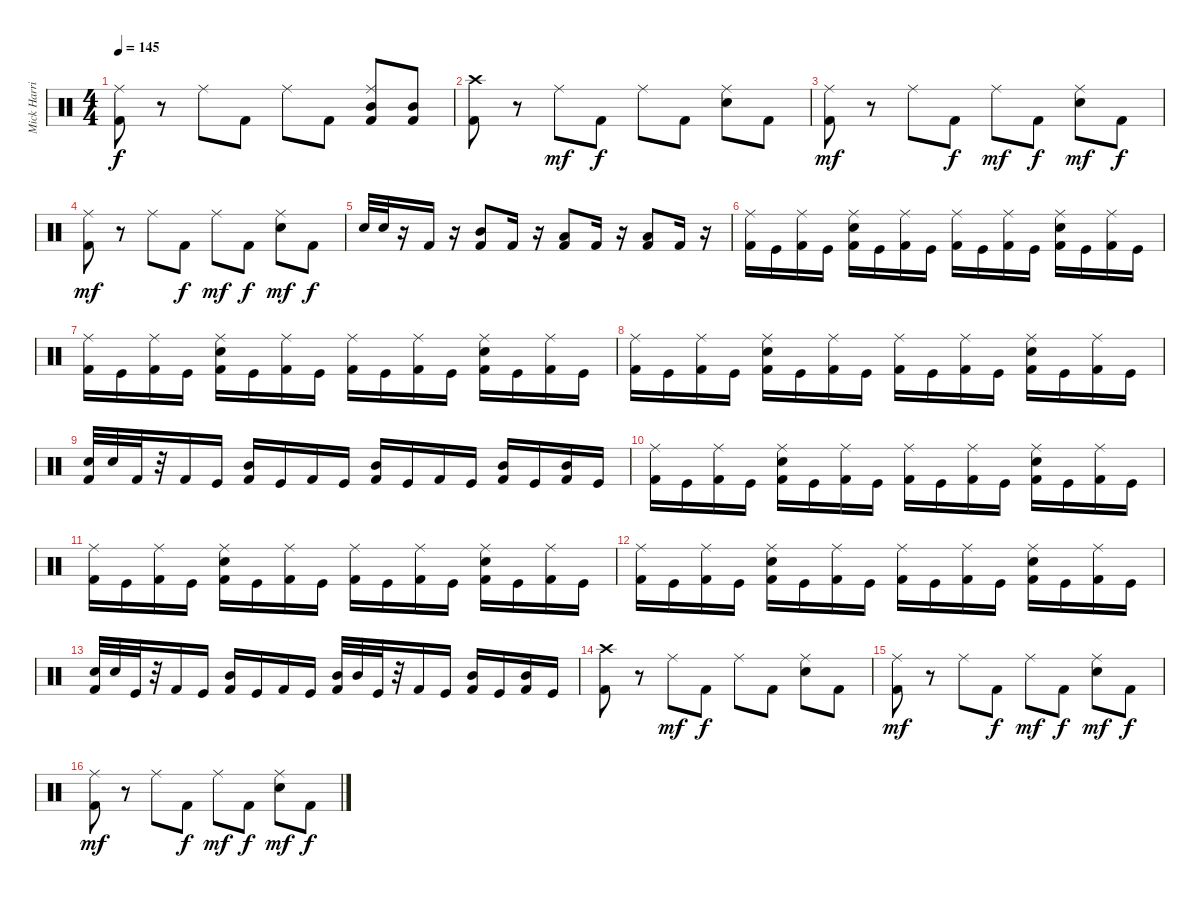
\track ("Mick Harris (Drums)" "Mick Harri") {instrument percussion}
\staff {score}
\articulation defaults
\ts (4 4)
\tempo 145
\clef neutral
\ks c
("Kick (hit) 2" "Ride (middle)").8{dy f} r.8 "Ride (middle)".8 "Kick (hit) 2".8 "Ride (middle)".8 "Kick (hit) 2".8 ("Kick (hit) 2" "Mid Tom (hit)" "Ride (middle)").8 ("Kick (hit) 2" "Mid Tom (hit)").8 |
("Kick (hit) 2" "Crash high (hit)").8 r.8 "Ride (middle)".8{dy mf} "Kick (hit) 2".8{dy f} "Ride (middle)".8 "Kick (hit) 2".8 ("Electric Snare (hit)" "Ride (middle)").8 "Kick (hit) 2".8 |
("Kick (hit) 2" "Ride (middle)").8{dy mf} r.8 "Ride (middle)".8 "Kick (hit) 2".8{dy f} "Ride (middle)".8{dy mf} "Kick (hit) 2".8{dy f} ("Electric Snare (hit)" "Ride (middle)").8{dy mf} "Kick (hit) 2".8{dy f} |
("Kick (hit) 2" "Ride (middle)").8{dy mf} r.8 "Ride (middle)".8 "Kick (hit) 2".8{dy f} "Ride (middle)".8{dy mf} "Kick (hit) 2".8{dy f} ("Electric Snare (hit)" "Ride (middle)").8{dy mf} "Kick (hit) 2".8{dy f} |
"Electric Snare (hit)".32 "Electric Snare (hit)".32 r.16 "Kick (hit) 2".16 r.16 ("Mid Tom (hit)" "Kick (hit) 2").8 "Kick (hit) 2".16 r.16 ("Low Tom (hit)" "Kick (hit) 2").8 "Kick (hit) 2".16 r.16 ("Low Floor Tom (hit)" "Kick (hit) 2").8 "Kick (hit) 2".16 r.16 |
("Kick (hit) 2" "Ride (middle)").16 "Kick (hit)".16 ("Kick (hit) 2" "Ride (middle)").16 "Kick (hit)".16 ("Kick (hit) 2" "Electric Snare (hit)" "Ride (middle)").16 "Kick (hit)".16 ("Kick (hit) 2" "Ride (middle)").16 "Kick (hit)".16 ("Kick (hit) 2" "Ride (middle)").16 "Kick (hit)".16 ("Kick (hit) 2" "Ride (middle)").16 "Kick (hit)".16 ("Kick (hit) 2" "Electric Snare (hit)" "Ride (middle)").16 "Kick (hit)".16 ("Kick (hit) 2" "Ride (middle)").16 "Kick (hit)".16 |
("Kick (hit) 2" "Ride (middle)").16 "Kick (hit)".16 ("Kick (hit) 2" "Ride (middle)").16 "Kick (hit)".16 ("Kick (hit) 2" "Electric Snare (hit)" "Ride (middle)").16 "Kick (hit)".16 ("Kick (hit) 2" "Ride (middle)").16 "Kick (hit)".16 ("Kick (hit) 2" "Ride (middle)").16 "Kick (hit)".16 ("Kick (hit) 2" "Ride (middle)").16 "Kick (hit)".16 ("Kick (hit) 2" "Electric Snare (hit)" "Ride (middle)").16 "Kick (hit)".16 ("Kick (hit) 2" "Ride (middle)").16 "Kick (hit)".16 |
("Kick (hit) 2" "Ride (middle)").16 "Kick (hit)".16 ("Kick (hit) 2" "Ride (middle)").16 "Kick (hit)".16 ("Kick (hit) 2" "Electric Snare (hit)" "Ride (middle)").16 "Kick (hit)".16 ("Kick (hit) 2" "Ride (middle)").16 "Kick (hit)".16 ("Kick (hit) 2" "Ride (middle)").16 "Kick (hit)".16 ("Kick (hit) 2" "Ride (middle)").16 "Kick (hit)".16 ("Kick (hit) 2" "Electric Snare (hit)" "Ride (middle)").16 "Kick (hit)".16 ("Kick (hit) 2" "Ride (middle)").16 "Kick (hit)".16 |
("Kick (hit) 2" "Electric Snare (hit)").32 "Electric Snare (hit)".32 "Kick (hit) 2".32 r.32 "Kick (hit) 2".16 "Kick (hit)".16 ("Kick (hit) 2" "Mid Tom (hit)").16 "Kick (hit)".16 "Kick (hit) 2".16 "Kick (hit)".16 ("Kick (hit) 2" "Mid Tom (hit)").16 "Kick (hit)".16 "Kick (hit) 2".16 "Kick (hit)".16 ("Kick (hit) 2" "Mid Tom (hit)").16 "Kick (hit)".16 ("Kick (hit) 2" "Mid Tom (hit)").16 "Kick (hit)".16 |
("Kick (hit) 2" "Ride (middle)").16 "Kick (hit)".16 ("Kick (hit) 2" "Ride (middle)").16 "Kick (hit)".16 ("Kick (hit) 2" "Electric Snare (hit)" "Ride (middle)").16 "Kick (hit)".16 ("Kick (hit) 2" "Ride (middle)").16 "Kick (hit)".16 ("Kick (hit) 2" "Ride (middle)").16 "Kick (hit)".16 ("Kick (hit) 2" "Ride (middle)").16 "Kick (hit)".16 ("Kick (hit) 2" "Electric Snare (hit)" "Ride (middle)").16 "Kick (hit)".16 ("Kick (hit) 2" "Ride (middle)").16 "Kick (hit)".16 |
("Kick (hit) 2" "Ride (middle)").16 "Kick (hit)".16 ("Kick (hit) 2" "Ride (middle)").16 "Kick (hit)".16 ("Kick (hit) 2" "Electric Snare (hit)" "Ride (middle)").16 "Kick (hit)".16 ("Kick (hit) 2" "Ride (middle)").16 "Kick (hit)".16 ("Kick (hit) 2" "Ride (middle)").16 "Kick (hit)".16 ("Kick (hit) 2" "Ride (middle)").16 "Kick (hit)".16 ("Kick (hit) 2" "Electric Snare (hit)" "Ride (middle)").16 "Kick (hit)".16 ("Kick (hit) 2" "Ride (middle)").16 "Kick (hit)".16 |
("Kick (hit) 2" "Ride (middle)").16 "Kick (hit)".16 ("Kick (hit) 2" "Ride (middle)").16 "Kick (hit)".16 ("Kick (hit) 2" "Electric Snare (hit)" "Ride (middle)").16 "Kick (hit)".16 ("Kick (hit) 2" "Ride (middle)").16 "Kick (hit)".16 ("Kick (hit) 2" "Ride (middle)").16 "Kick (hit)".16 ("Kick (hit) 2" "Ride (middle)").16 "Kick (hit)".16 ("Kick (hit) 2" "Electric Snare (hit)" "Ride (middle)").16 "Kick (hit)".16 ("Kick (hit) 2" "Ride (middle)").16 "Kick (hit)".16 |
("Kick (hit) 2" "Electric Snare (hit)").32 "Electric Snare (hit)".32 "Kick (hit)".32 r.32 "Kick (hit) 2".16 "Kick (hit)".16 ("Kick (hit) 2" "Mid Tom (hit)").16 "Kick (hit)".16 "Kick (hit) 2".16 "Kick (hit)".16 ("Kick (hit) 2" "Mid Tom (hit)").32 "Mid Tom (hit)".32 "Kick (hit)".32 r.32 "Kick (hit) 2".16 "Kick (hit)".16 ("Kick (hit) 2" "Mid Tom (hit)").16 "Kick (hit)".16 ("Kick (hit) 2" "Mid Tom (hit)").16 "Kick (hit)".16 |
("Kick (hit) 2" "Crash high (hit)").8 r.8 "Ride (middle)".8{dy mf} "Kick (hit) 2".8{dy f} "Ride (middle)".8 "Kick (hit) 2".8 ("Electric Snare (hit)" "Ride (middle)").8 "Kick (hit) 2".8 |
("Kick (hit) 2" "Ride (middle)").8{dy mf} r.8 "Ride (middle)".8 "Kick (hit) 2".8{dy f} "Ride (middle)".8{dy mf} "Kick (hit) 2".8{dy f} ("Electric Snare (hit)" "Ride (middle)").8{dy mf} "Kick (hit) 2".8{dy f} |
("Kick (hit) 2" "Ride (middle)").8{dy mf} r.8 "Ride (middle)".8 "Kick (hit) 2".8{dy f} "Ride (middle)".8{dy mf} "Kick (hit) 2".8{dy f} ("Electric Snare (hit)" "Ride (middle)").8{dy mf} "Kick (hit) 2".8{dy f}
